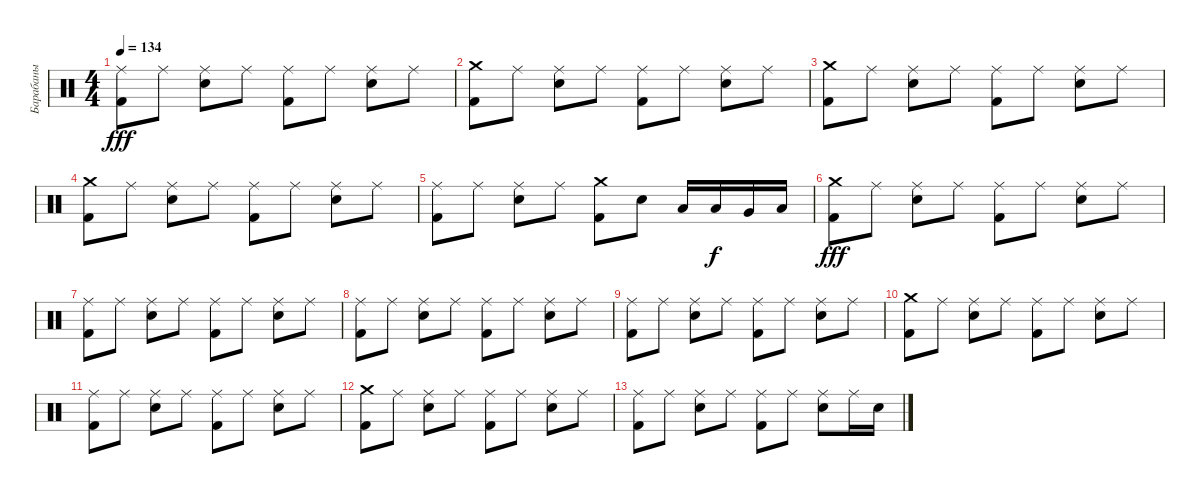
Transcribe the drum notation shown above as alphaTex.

\track ("Барабаны" "Барабаны") {instrument percussion}
\staff {score}
\articulation defaults
\ts (4 4)
\tempo 134
\clef neutral
\ks c
("Ride (middle)" "Kick (hit) 2").8{dy fff} "Ride (middle)".8 ("Ride (middle)" "Electric Snare (hit)").8 "Ride (middle)".8 ("Ride (middle)" "Kick (hit) 2").8 "Ride (middle)".8 ("Ride (middle)" "Electric Snare (hit)").8 "Ride (middle)".8 |
("Crash medium (hit)" "Kick (hit) 2").8 "Ride (middle)".8 ("Ride (middle)" "Electric Snare (hit)").8 "Ride (middle)".8 ("Ride (middle)" "Kick (hit) 2").8 "Ride (middle)".8 ("Ride (middle)" "Electric Snare (hit)").8 "Ride (middle)".8 |
("Crash medium (hit)" "Kick (hit) 2").8 "Ride (middle)".8 ("Ride (middle)" "Electric Snare (hit)").8 "Ride (middle)".8 ("Ride (middle)" "Kick (hit) 2").8 "Ride (middle)".8 ("Ride (middle)" "Electric Snare (hit)").8 "Ride (middle)".8 |
("Crash medium (hit)" "Kick (hit) 2").8 "Ride (middle)".8 ("Ride (middle)" "Electric Snare (hit)").8 "Ride (middle)".8 ("Ride (middle)" "Kick (hit) 2").8 "Ride (middle)".8 ("Ride (middle)" "Electric Snare (hit)").8 "Ride (middle)".8 |
("Ride (middle)" "Kick (hit) 2").8 "Ride (middle)".8 ("Ride (middle)" "Electric Snare (hit)").8 "Ride (middle)".8 ("Crash medium (hit)" "Kick (hit) 2").8 "Electric Snare (hit)".8 "Low Tom (hit)".16 "Low Tom (hit)".16{dy f} "Very Low Tom (hit)".16 "Low Floor Tom (hit)".16 |
("Crash medium (hit)" "Kick (hit) 2").8{dy fff} "Ride (middle)".8 ("Ride (middle)" "Electric Snare (hit)").8 "Ride (middle)".8 ("Ride (middle)" "Kick (hit) 2").8 "Ride (middle)".8 ("Ride (middle)" "Electric Snare (hit)").8 "Ride (middle)".8 |
("Ride (middle)" "Kick (hit) 2").8 "Ride (middle)".8 ("Ride (middle)" "Electric Snare (hit)").8 "Ride (middle)".8 ("Ride (middle)" "Kick (hit) 2").8 "Ride (middle)".8 ("Ride (middle)" "Electric Snare (hit)").8 "Ride (middle)".8 |
("Ride (middle)" "Kick (hit) 2").8 "Ride (middle)".8 ("Ride (middle)" "Electric Snare (hit)").8 "Ride (middle)".8 ("Ride (middle)" "Kick (hit) 2").8 "Ride (middle)".8 ("Ride (middle)" "Electric Snare (hit)").8 "Ride (middle)".8 |
("Ride (middle)" "Kick (hit) 2").8 "Ride (middle)".8 ("Ride (middle)" "Electric Snare (hit)").8 "Ride (middle)".8 ("Ride (middle)" "Kick (hit) 2").8 "Ride (middle)".8 ("Ride (middle)" "Electric Snare (hit)").8 "Ride (middle)".8 |
("Crash medium (hit)" "Kick (hit) 2").8 "Ride (middle)".8 ("Ride (middle)" "Electric Snare (hit)").8 "Ride (middle)".8 ("Ride (middle)" "Kick (hit) 2").8 "Ride (middle)".8 ("Ride (middle)" "Electric Snare (hit)").8 "Ride (middle)".8 |
("Ride (middle)" "Kick (hit) 2").8 "Ride (middle)".8 ("Ride (middle)" "Electric Snare (hit)").8 "Ride (middle)".8 ("Ride (middle)" "Kick (hit) 2").8 "Ride (middle)".8 ("Ride (middle)" "Electric Snare (hit)").8 "Ride (middle)".8 |
("Crash medium (hit)" "Kick (hit) 2").8 "Ride (middle)".8 ("Ride (middle)" "Electric Snare (hit)").8 "Ride (middle)".8 ("Ride (middle)" "Kick (hit) 2").8 "Ride (middle)".8 ("Ride (middle)" "Electric Snare (hit)").8 "Ride (middle)".8 |
("Ride (middle)" "Kick (hit) 2").8 "Ride (middle)".8 ("Ride (middle)" "Electric Snare (hit)").8 "Ride (middle)".8 ("Ride (middle)" "Kick (hit) 2").8 "Ride (middle)".8 ("Ride (middle)" "Electric Snare (hit)").8 "Ride (middle)".16 "Electric Snare (hit)".16
